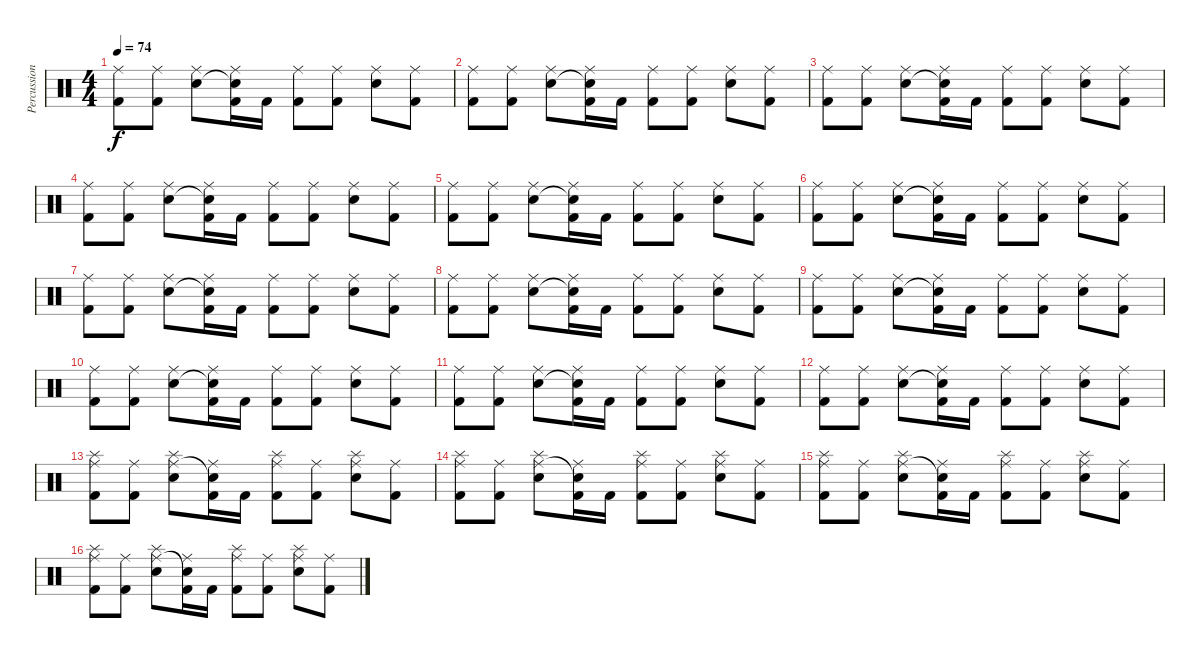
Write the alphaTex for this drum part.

\track ("Percussion" "Percussion") {instrument percussion}
\staff {score}
\articulation defaults
\ts (4 4)
\tempo 74
\clef neutral
\ks c
("Ride (middle)" "Kick (hit) 2").8{dy f} ("Ride (middle)" "Kick (hit) 2").8 ("Ride (middle)" "Electric Snare (hit)").8 ("Ride (middle)" "Snare (hit)"{t} "Kick (hit) 2").16 "Kick (hit) 2".16 ("Ride (middle)" "Kick (hit) 2").8 ("Ride (middle)" "Kick (hit) 2").8 ("Ride (middle)" "Electric Snare (hit)").8 ("Ride (middle)" "Kick (hit) 2").8 |
("Ride (middle)" "Kick (hit) 2").8 ("Ride (middle)" "Kick (hit) 2").8 ("Ride (middle)" "Electric Snare (hit)").8 ("Ride (middle)" "Snare (hit)"{t} "Kick (hit) 2").16 "Kick (hit) 2".16 ("Ride (middle)" "Kick (hit) 2").8 ("Ride (middle)" "Kick (hit) 2").8 ("Ride (middle)" "Electric Snare (hit)").8 ("Ride (middle)" "Kick (hit) 2").8 |
("Ride (middle)" "Kick (hit) 2").8 ("Ride (middle)" "Kick (hit) 2").8 ("Ride (middle)" "Electric Snare (hit)").8 ("Ride (middle)" "Snare (hit)"{t} "Kick (hit) 2").16 "Kick (hit) 2".16 ("Ride (middle)" "Kick (hit) 2").8 ("Ride (middle)" "Kick (hit) 2").8 ("Ride (middle)" "Electric Snare (hit)").8 ("Ride (middle)" "Kick (hit) 2").8 |
("Ride (middle)" "Kick (hit) 2").8 ("Ride (middle)" "Kick (hit) 2").8 ("Ride (middle)" "Electric Snare (hit)").8 ("Ride (middle)" "Snare (hit)"{t} "Kick (hit) 2").16 "Kick (hit) 2".16 ("Ride (middle)" "Kick (hit) 2").8 ("Ride (middle)" "Kick (hit) 2").8 ("Ride (middle)" "Electric Snare (hit)").8 ("Ride (middle)" "Kick (hit) 2").8 |
("Ride (middle)" "Kick (hit) 2").8 ("Ride (middle)" "Kick (hit) 2").8 ("Ride (middle)" "Electric Snare (hit)").8 ("Ride (middle)" "Snare (hit)"{t} "Kick (hit) 2").16 "Kick (hit) 2".16 ("Ride (middle)" "Kick (hit) 2").8 ("Ride (middle)" "Kick (hit) 2").8 ("Ride (middle)" "Electric Snare (hit)").8 ("Ride (middle)" "Kick (hit) 2").8 |
("Ride (middle)" "Kick (hit) 2").8 ("Ride (middle)" "Kick (hit) 2").8 ("Ride (middle)" "Electric Snare (hit)").8 ("Ride (middle)" "Snare (hit)"{t} "Kick (hit) 2").16 "Kick (hit) 2".16 ("Ride (middle)" "Kick (hit) 2").8 ("Ride (middle)" "Kick (hit) 2").8 ("Ride (middle)" "Electric Snare (hit)").8 ("Ride (middle)" "Kick (hit) 2").8 |
("Ride (middle)" "Kick (hit) 2").8 ("Ride (middle)" "Kick (hit) 2").8 ("Ride (middle)" "Electric Snare (hit)").8 ("Ride (middle)" "Snare (hit)"{t} "Kick (hit) 2").16 "Kick (hit) 2".16 ("Ride (middle)" "Kick (hit) 2").8 ("Ride (middle)" "Kick (hit) 2").8 ("Ride (middle)" "Electric Snare (hit)").8 ("Ride (middle)" "Kick (hit) 2").8 |
("Ride (middle)" "Kick (hit) 2").8 ("Ride (middle)" "Kick (hit) 2").8 ("Ride (middle)" "Electric Snare (hit)").8 ("Ride (middle)" "Snare (hit)"{t} "Kick (hit) 2").16 "Kick (hit) 2".16 ("Ride (middle)" "Kick (hit) 2").8 ("Ride (middle)" "Kick (hit) 2").8 ("Ride (middle)" "Electric Snare (hit)").8 ("Ride (middle)" "Kick (hit) 2").8 |
("Ride (middle)" "Kick (hit) 2").8 ("Ride (middle)" "Kick (hit) 2").8 ("Ride (middle)" "Electric Snare (hit)").8 ("Ride (middle)" "Snare (hit)"{t} "Kick (hit) 2").16 "Kick (hit) 2".16 ("Ride (middle)" "Kick (hit) 2").8 ("Ride (middle)" "Kick (hit) 2").8 ("Ride (middle)" "Electric Snare (hit)").8 ("Ride (middle)" "Kick (hit) 2").8 |
("Ride (middle)" "Kick (hit) 2").8 ("Ride (middle)" "Kick (hit) 2").8 ("Ride (middle)" "Electric Snare (hit)").8 ("Ride (middle)" "Snare (hit)"{t} "Kick (hit) 2").16 "Kick (hit) 2".16 ("Ride (middle)" "Kick (hit) 2").8 ("Ride (middle)" "Kick (hit) 2").8 ("Ride (middle)" "Electric Snare (hit)").8 ("Ride (middle)" "Kick (hit) 2").8 |
("Ride (middle)" "Kick (hit) 2").8 ("Ride (middle)" "Kick (hit) 2").8 ("Ride (middle)" "Electric Snare (hit)").8 ("Ride (middle)" "Snare (hit)"{t} "Kick (hit) 2").16 "Kick (hit) 2".16 ("Ride (middle)" "Kick (hit) 2").8 ("Ride (middle)" "Kick (hit) 2").8 ("Ride (middle)" "Electric Snare (hit)").8 ("Ride (middle)" "Kick (hit) 2").8 |
("Ride (middle)" "Kick (hit) 2").8 ("Ride (middle)" "Kick (hit) 2").8 ("Ride (middle)" "Electric Snare (hit)").8 ("Ride (middle)" "Snare (hit)"{t} "Kick (hit) 2").16 "Kick (hit) 2".16 ("Ride (middle)" "Kick (hit) 2").8 ("Ride (middle)" "Kick (hit) 2").8 ("Ride (middle)" "Electric Snare (hit)").8 ("Ride (middle)" "Kick (hit) 2").8 |
("Splash (hit)" "Ride (middle)" "Kick (hit) 2").8 ("Ride (middle)" "Kick (hit) 2").8 ("Splash (hit)" "Ride (middle)" "Electric Snare (hit)").8 ("Ride (middle)" "Snare (hit)"{t} "Kick (hit) 2").16 "Kick (hit) 2".16 ("Splash (hit)" "Ride (middle)" "Kick (hit) 2").8 ("Ride (middle)" "Kick (hit) 2").8 ("Splash (hit)" "Ride (middle)" "Electric Snare (hit)").8 ("Ride (middle)" "Kick (hit) 2").8 |
("Splash (hit)" "Ride (middle)" "Kick (hit) 2").8 ("Ride (middle)" "Kick (hit) 2").8 ("Splash (hit)" "Ride (middle)" "Electric Snare (hit)").8 ("Ride (middle)" "Snare (hit)"{t} "Kick (hit) 2").16 "Kick (hit) 2".16 ("Splash (hit)" "Ride (middle)" "Kick (hit) 2").8 ("Ride (middle)" "Kick (hit) 2").8 ("Splash (hit)" "Ride (middle)" "Electric Snare (hit)").8 ("Ride (middle)" "Kick (hit) 2").8 |
("Splash (hit)" "Ride (middle)" "Kick (hit) 2").8 ("Ride (middle)" "Kick (hit) 2").8 ("Splash (hit)" "Ride (middle)" "Electric Snare (hit)").8 ("Ride (middle)" "Snare (hit)"{t} "Kick (hit) 2").16 "Kick (hit) 2".16 ("Splash (hit)" "Ride (middle)" "Kick (hit) 2").8 ("Ride (middle)" "Kick (hit) 2").8 ("Splash (hit)" "Ride (middle)" "Electric Snare (hit)").8 ("Ride (middle)" "Kick (hit) 2").8 |
("Splash (hit)" "Ride (middle)" "Kick (hit) 2").8 ("Ride (middle)" "Kick (hit) 2").8 ("Splash (hit)" "Ride (middle)" "Electric Snare (hit)").8 ("Ride (middle)" "Snare (hit)"{t} "Kick (hit) 2").16 "Kick (hit) 2".16 ("Splash (hit)" "Ride (middle)" "Kick (hit) 2").8 ("Ride (middle)" "Kick (hit) 2").8 ("Splash (hit)" "Ride (middle)" "Electric Snare (hit)").8 ("Ride (middle)" "Kick (hit) 2").8
